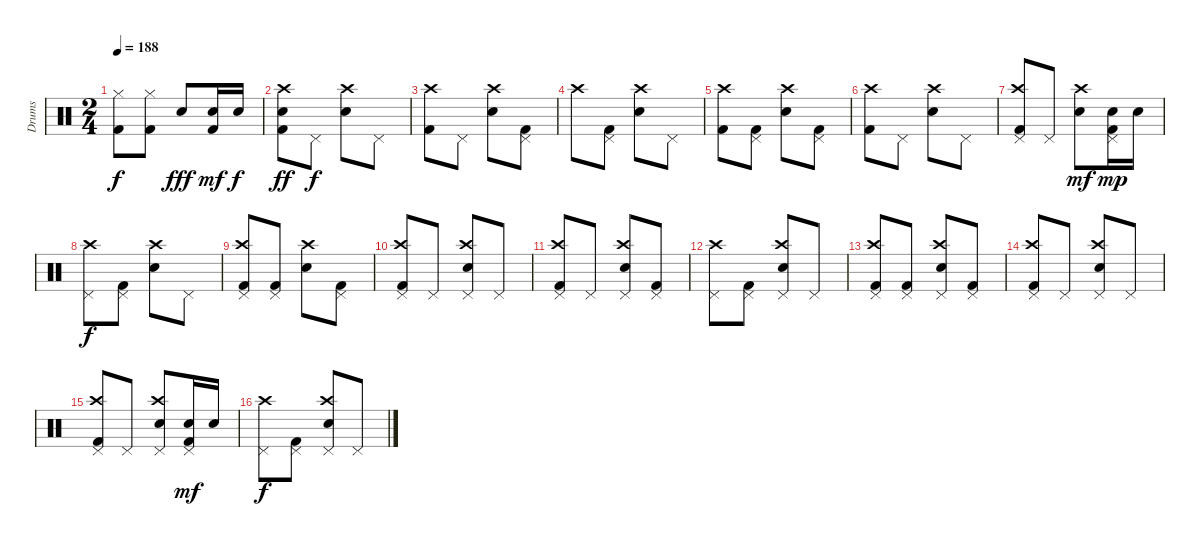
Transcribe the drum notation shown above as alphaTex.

\track ("Drums" "Drums") {instrument percussion}
\staff {score}
\articulation defaults
\ts (2 4)
\tempo 188
\clef neutral
\ks c
("Hi-Hat (closed)" "Kick (hit) 2").8{dy f} ("Hi-Hat (closed)" "Kick (hit) 2").8 "Snare (hit) 2".8{dy fff} ("Snare (hit) 2" "Kick (hit) 2").16{dy mf} "Snare (hit) 2".16{dy f} |
("Crash high (hit)" "Snare (hit) 2" "Kick (hit) 2").8{dy ff} "Pedal Hi-Hat (hit)".8{dy f} ("Crash high (hit)" "Snare (hit) 2").8 "Pedal Hi-Hat (hit)".8 |
("Crash high (hit)" "Kick (hit) 2").8 "Pedal Hi-Hat (hit)".8 ("Crash high (hit)" "Snare (hit) 2").8 ("Pedal Hi-Hat (hit)" "Kick (hit) 2").8 |
"Crash high (hit)".8 ("Pedal Hi-Hat (hit)" "Kick (hit) 2").8 ("Crash high (hit)" "Snare (hit) 2").8 "Pedal Hi-Hat (hit)".8 |
("Crash high (hit)" "Kick (hit) 2").8 ("Pedal Hi-Hat (hit)" "Kick (hit) 2").8 ("Crash high (hit)" "Snare (hit) 2").8 ("Pedal Hi-Hat (hit)" "Kick (hit) 2").8 |
("Crash high (hit)" "Kick (hit) 2").8 "Pedal Hi-Hat (hit)".8 ("Crash high (hit)" "Snare (hit) 2").8 "Pedal Hi-Hat (hit)".8 |
("Crash high (hit)" "Pedal Hi-Hat (hit)" "Kick (hit) 2").8 "Pedal Hi-Hat (hit)".8 ("Crash high (hit)" "Snare (hit) 2").8{dy mf} ("Pedal Hi-Hat (hit)" "Snare (hit) 2" "Kick (hit) 2").16{dy mp} "Snare (hit) 2".16 |
("Crash high (hit)" "Pedal Hi-Hat (hit)").8{dy f} ("Pedal Hi-Hat (hit)" "Kick (hit) 2").8 ("Crash high (hit)" "Snare (hit) 2").8 "Pedal Hi-Hat (hit)".8 |
("Crash high (hit)" "Pedal Hi-Hat (hit)" "Kick (hit) 2").8 ("Pedal Hi-Hat (hit)" "Kick (hit) 2").8 ("Crash high (hit)" "Snare (hit) 2").8 ("Pedal Hi-Hat (hit)" "Kick (hit) 2").8 |
("Crash high (hit)" "Pedal Hi-Hat (hit)" "Kick (hit) 2").8 "Pedal Hi-Hat (hit)".8 ("Crash high (hit)" "Pedal Hi-Hat (hit)" "Snare (hit) 2").8 "Pedal Hi-Hat (hit)".8 |
("Crash high (hit)" "Pedal Hi-Hat (hit)" "Kick (hit) 2").8 "Pedal Hi-Hat (hit)".8 ("Crash high (hit)" "Pedal Hi-Hat (hit)" "Snare (hit) 2").8 ("Pedal Hi-Hat (hit)" "Kick (hit) 2").8 |
("Crash high (hit)" "Pedal Hi-Hat (hit)").8 ("Pedal Hi-Hat (hit)" "Kick (hit) 2").8 ("Crash high (hit)" "Pedal Hi-Hat (hit)" "Snare (hit) 2").8 "Pedal Hi-Hat (hit)".8 |
("Crash high (hit)" "Pedal Hi-Hat (hit)" "Kick (hit) 2").8 ("Pedal Hi-Hat (hit)" "Kick (hit) 2").8 ("Crash high (hit)" "Pedal Hi-Hat (hit)" "Snare (hit) 2").8 ("Pedal Hi-Hat (hit)" "Kick (hit) 2").8 |
("Crash high (hit)" "Pedal Hi-Hat (hit)" "Kick (hit) 2").8 "Pedal Hi-Hat (hit)".8 ("Crash high (hit)" "Pedal Hi-Hat (hit)" "Snare (hit) 2").8 "Pedal Hi-Hat (hit)".8 |
("Crash high (hit)" "Pedal Hi-Hat (hit)" "Kick (hit) 2").8 "Pedal Hi-Hat (hit)".8 ("Crash high (hit)" "Pedal Hi-Hat (hit)" "Snare (hit) 2").8 ("Pedal Hi-Hat (hit)" "Snare (hit) 2" "Kick (hit) 2").16{dy mf} "Snare (hit) 2".16 |
("Crash high (hit)" "Pedal Hi-Hat (hit)").8{dy f} ("Pedal Hi-Hat (hit)" "Kick (hit) 2").8 ("Crash high (hit)" "Pedal Hi-Hat (hit)" "Snare (hit) 2").8 "Pedal Hi-Hat (hit)".8
